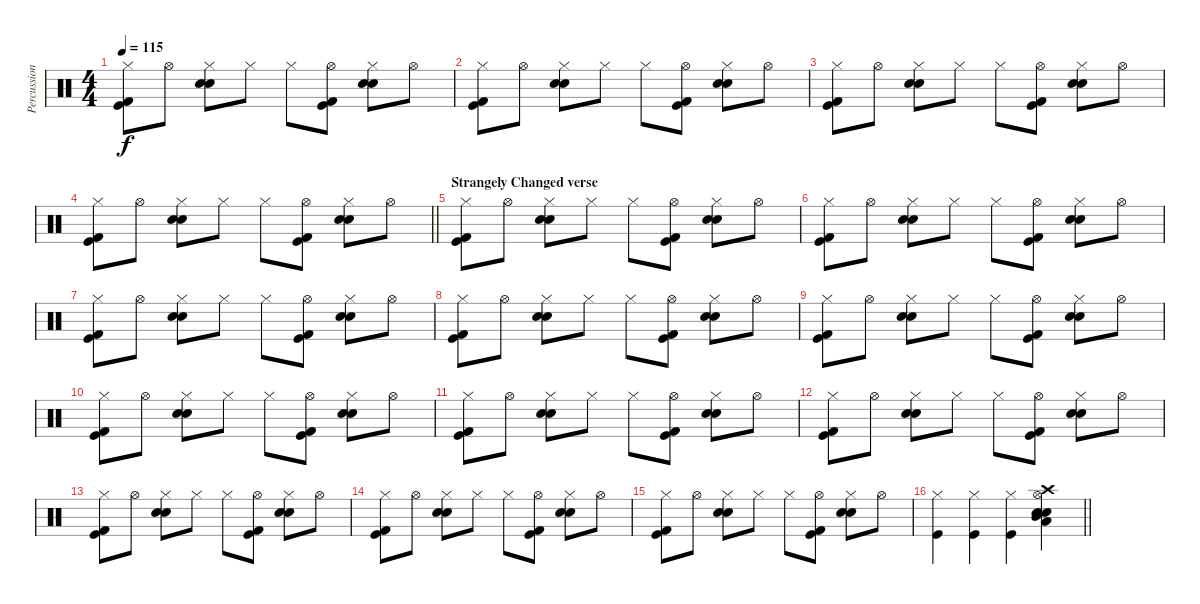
\track ("Percussion" "Percussion") {instrument percussion}
\staff {score}
\articulation defaults
\ts (4 4)
\tempo 115
\clef neutral
\ks c
("Hi-Hat (closed)" "Kick (hit)" "Kick (hit) 2").8{dy f} "Hi-Hat (open)".8 ("Hi-Hat (closed)" "Snare (hit) 2" "Electric Snare (hit)").8 "Hi-Hat (closed)".8 "Hi-Hat (closed)".8 ("Hi-Hat (open)" "Kick (hit)" "Kick (hit) 2").8 ("Hi-Hat (closed)" "Snare (hit) 2" "Electric Snare (hit)").8 "Hi-Hat (open)".8 |
("Hi-Hat (closed)" "Kick (hit)" "Kick (hit) 2").8 "Hi-Hat (open)".8 ("Hi-Hat (closed)" "Snare (hit) 2" "Electric Snare (hit)").8 "Hi-Hat (closed)".8 "Hi-Hat (closed)".8 ("Hi-Hat (open)" "Kick (hit)" "Kick (hit) 2").8 ("Hi-Hat (closed)" "Snare (hit) 2" "Electric Snare (hit)").8 "Hi-Hat (open)".8 |
("Hi-Hat (closed)" "Kick (hit)" "Kick (hit) 2").8 "Hi-Hat (open)".8 ("Hi-Hat (closed)" "Snare (hit) 2" "Electric Snare (hit)").8 "Hi-Hat (closed)".8 "Hi-Hat (closed)".8 ("Hi-Hat (open)" "Kick (hit)" "Kick (hit) 2").8 ("Hi-Hat (closed)" "Snare (hit) 2" "Electric Snare (hit)").8 "Hi-Hat (open)".8 |
\barLineRight lightlight
("Hi-Hat (closed)" "Kick (hit)" "Kick (hit) 2").8 "Hi-Hat (open)".8 ("Hi-Hat (closed)" "Snare (hit) 2" "Electric Snare (hit)").8 "Hi-Hat (closed)".8 "Hi-Hat (closed)".8 ("Hi-Hat (open)" "Kick (hit)" "Kick (hit) 2").8 ("Hi-Hat (closed)" "Snare (hit) 2" "Electric Snare (hit)").8 "Hi-Hat (open)".8 |
\section ("" "Strangely Changed verse")
("Hi-Hat (closed)" "Kick (hit)" "Kick (hit) 2").8 "Hi-Hat (open)".8 ("Hi-Hat (closed)" "Snare (hit) 2" "Electric Snare (hit)").8 "Hi-Hat (closed)".8 "Hi-Hat (closed)".8 ("Hi-Hat (open)" "Kick (hit)" "Kick (hit) 2").8 ("Hi-Hat (closed)" "Snare (hit) 2" "Electric Snare (hit)").8 "Hi-Hat (open)".8 |
("Hi-Hat (closed)" "Kick (hit)" "Kick (hit) 2").8 "Hi-Hat (open)".8 ("Hi-Hat (closed)" "Snare (hit) 2" "Electric Snare (hit)").8 "Hi-Hat (closed)".8 "Hi-Hat (closed)".8 ("Hi-Hat (open)" "Kick (hit)" "Kick (hit) 2").8 ("Hi-Hat (closed)" "Snare (hit) 2" "Electric Snare (hit)").8 "Hi-Hat (open)".8 |
("Hi-Hat (closed)" "Kick (hit)" "Kick (hit) 2").8 "Hi-Hat (open)".8 ("Hi-Hat (closed)" "Snare (hit) 2" "Electric Snare (hit)").8 "Hi-Hat (closed)".8 "Hi-Hat (closed)".8 ("Hi-Hat (open)" "Kick (hit)" "Kick (hit) 2").8 ("Hi-Hat (closed)" "Snare (hit) 2" "Electric Snare (hit)").8 "Hi-Hat (open)".8 |
("Hi-Hat (closed)" "Kick (hit)" "Kick (hit) 2").8 "Hi-Hat (open)".8 ("Hi-Hat (closed)" "Snare (hit) 2" "Electric Snare (hit)").8 "Hi-Hat (closed)".8 "Hi-Hat (closed)".8 ("Hi-Hat (open)" "Kick (hit)" "Kick (hit) 2").8 ("Hi-Hat (closed)" "Snare (hit) 2" "Electric Snare (hit)").8 "Hi-Hat (open)".8 |
("Hi-Hat (closed)" "Kick (hit)" "Kick (hit) 2").8 "Hi-Hat (open)".8 ("Hi-Hat (closed)" "Snare (hit) 2" "Electric Snare (hit)").8 "Hi-Hat (closed)".8 "Hi-Hat (closed)".8 ("Hi-Hat (open)" "Kick (hit)" "Kick (hit) 2").8 ("Hi-Hat (closed)" "Snare (hit) 2" "Electric Snare (hit)").8 "Hi-Hat (open)".8 |
("Hi-Hat (closed)" "Kick (hit)" "Kick (hit) 2").8 "Hi-Hat (open)".8 ("Hi-Hat (closed)" "Snare (hit) 2" "Electric Snare (hit)").8 "Hi-Hat (closed)".8 "Hi-Hat (closed)".8 ("Hi-Hat (open)" "Kick (hit)" "Kick (hit) 2").8 ("Hi-Hat (closed)" "Snare (hit) 2" "Electric Snare (hit)").8 "Hi-Hat (open)".8 |
("Hi-Hat (closed)" "Kick (hit)" "Kick (hit) 2").8 "Hi-Hat (open)".8 ("Hi-Hat (closed)" "Snare (hit) 2" "Electric Snare (hit)").8 "Hi-Hat (closed)".8 "Hi-Hat (closed)".8 ("Hi-Hat (open)" "Kick (hit)" "Kick (hit) 2").8 ("Hi-Hat (closed)" "Snare (hit) 2" "Electric Snare (hit)").8 "Hi-Hat (open)".8 |
("Hi-Hat (closed)" "Kick (hit)" "Kick (hit) 2").8 "Hi-Hat (open)".8 ("Hi-Hat (closed)" "Snare (hit) 2" "Electric Snare (hit)").8 "Hi-Hat (closed)".8 "Hi-Hat (closed)".8 ("Hi-Hat (open)" "Kick (hit)" "Kick (hit) 2").8 ("Hi-Hat (closed)" "Snare (hit) 2" "Electric Snare (hit)").8 "Hi-Hat (open)".8 |
("Hi-Hat (closed)" "Kick (hit)" "Kick (hit) 2").8 "Hi-Hat (open)".8 ("Hi-Hat (closed)" "Snare (hit) 2" "Electric Snare (hit)").8 "Hi-Hat (closed)".8 "Hi-Hat (closed)".8 ("Hi-Hat (open)" "Kick (hit)" "Kick (hit) 2").8 ("Hi-Hat (closed)" "Snare (hit) 2" "Electric Snare (hit)").8 "Hi-Hat (open)".8 |
("Hi-Hat (closed)" "Kick (hit)" "Kick (hit) 2").8 "Hi-Hat (open)".8 ("Hi-Hat (closed)" "Snare (hit) 2" "Electric Snare (hit)").8 "Hi-Hat (closed)".8 "Hi-Hat (closed)".8 ("Hi-Hat (open)" "Kick (hit)" "Kick (hit) 2").8 ("Hi-Hat (closed)" "Snare (hit) 2" "Electric Snare (hit)").8 "Hi-Hat (open)".8 |
("Hi-Hat (closed)" "Kick (hit)" "Kick (hit) 2").8 "Hi-Hat (open)".8 ("Hi-Hat (closed)" "Snare (hit) 2" "Electric Snare (hit)").8 "Hi-Hat (closed)".8 "Hi-Hat (closed)".8 ("Hi-Hat (open)" "Kick (hit)" "Kick (hit) 2").8 ("Hi-Hat (closed)" "Snare (hit) 2" "Electric Snare (hit)").8 "Hi-Hat (open)".8 |
\barLineRight lightlight
("Hi-Hat (closed)" "Kick (hit)").4 ("Hi-Hat (closed)" "Kick (hit)").4 ("Hi-Hat (closed)" "Kick (hit)").4 ("Mid Tom (hit)" "Low Tom (hit)" "Electric Snare (hit)" "Snare (hit) 2" "Crash high (hit)" "Hi-Hat (open)").4
